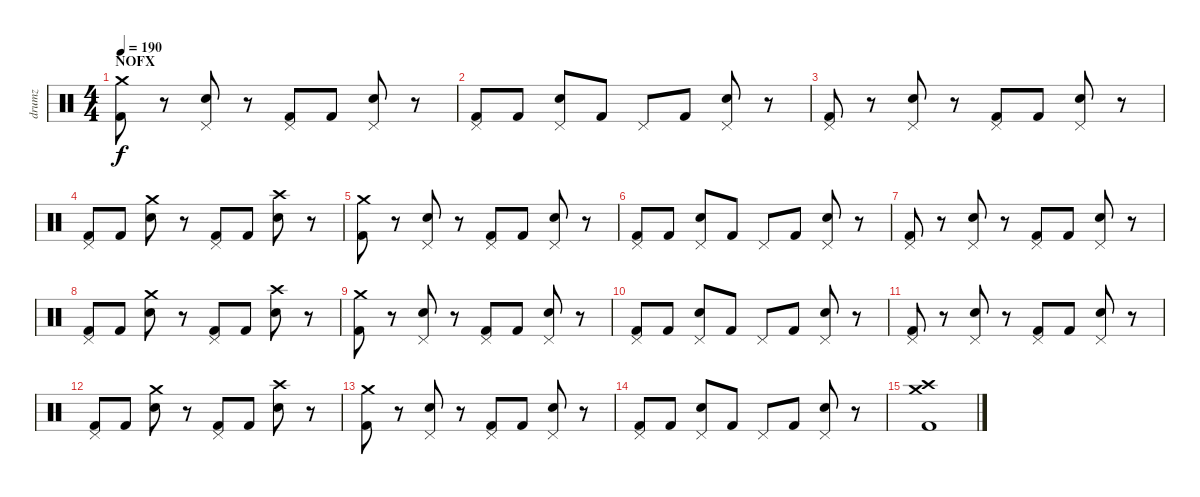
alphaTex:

\track ("drumz" "drumz") {instrument percussion}
\staff {score}
\articulation defaults
\ts (4 4)
\section ("" "NOFX")
\tempo 190
\clef neutral
\ks c
("Crash medium (hit)" "Kick (hit) 2").8{dy f} r.8 ("Pedal Hi-Hat (hit)" "Electric Snare (hit)").8 r.8 ("Pedal Hi-Hat (hit)" "Kick (hit) 2").8 "Kick (hit) 2".8 ("Pedal Hi-Hat (hit)" "Electric Snare (hit)").8 r.8 |
("Pedal Hi-Hat (hit)" "Kick (hit) 2").8 "Kick (hit) 2".8 ("Pedal Hi-Hat (hit)" "Electric Snare (hit)").8 "Kick (hit) 2".8 "Pedal Hi-Hat (hit)".8 "Kick (hit) 2".8 ("Pedal Hi-Hat (hit)" "Electric Snare (hit)").8 r.8 |
("Pedal Hi-Hat (hit)" "Kick (hit) 2").8 r.8 ("Pedal Hi-Hat (hit)" "Electric Snare (hit)").8 r.8 ("Pedal Hi-Hat (hit)" "Kick (hit) 2").8 "Kick (hit) 2".8 ("Pedal Hi-Hat (hit)" "Electric Snare (hit)").8 r.8 |
("Pedal Hi-Hat (hit)" "Kick (hit) 2").8 "Kick (hit) 2".8 ("Crash medium (hit)" "Electric Snare (hit)").8 r.8 ("Pedal Hi-Hat (hit)" "Kick (hit) 2").8 "Kick (hit) 2".8 ("Crash high (hit)" "Electric Snare (hit)").8 r.8 |
("Crash medium (hit)" "Kick (hit) 2").8 r.8 ("Pedal Hi-Hat (hit)" "Electric Snare (hit)").8 r.8 ("Pedal Hi-Hat (hit)" "Kick (hit) 2").8 "Kick (hit) 2".8 ("Pedal Hi-Hat (hit)" "Electric Snare (hit)").8 r.8 |
("Pedal Hi-Hat (hit)" "Kick (hit) 2").8 "Kick (hit) 2".8 ("Pedal Hi-Hat (hit)" "Electric Snare (hit)").8 "Kick (hit) 2".8 "Pedal Hi-Hat (hit)".8 "Kick (hit) 2".8 ("Pedal Hi-Hat (hit)" "Electric Snare (hit)").8 r.8 |
("Pedal Hi-Hat (hit)" "Kick (hit) 2").8 r.8 ("Pedal Hi-Hat (hit)" "Electric Snare (hit)").8 r.8 ("Pedal Hi-Hat (hit)" "Kick (hit) 2").8 "Kick (hit) 2".8 ("Pedal Hi-Hat (hit)" "Electric Snare (hit)").8 r.8 |
("Pedal Hi-Hat (hit)" "Kick (hit) 2").8 "Kick (hit) 2".8 ("Crash medium (hit)" "Electric Snare (hit)").8 r.8 ("Pedal Hi-Hat (hit)" "Kick (hit) 2").8 "Kick (hit) 2".8 ("Crash high (hit)" "Electric Snare (hit)").8 r.8 |
("Crash medium (hit)" "Kick (hit) 2").8 r.8 ("Pedal Hi-Hat (hit)" "Electric Snare (hit)").8 r.8 ("Pedal Hi-Hat (hit)" "Kick (hit) 2").8 "Kick (hit) 2".8 ("Pedal Hi-Hat (hit)" "Electric Snare (hit)").8 r.8 |
("Pedal Hi-Hat (hit)" "Kick (hit) 2").8 "Kick (hit) 2".8 ("Pedal Hi-Hat (hit)" "Electric Snare (hit)").8 "Kick (hit) 2".8 "Pedal Hi-Hat (hit)".8 "Kick (hit) 2".8 ("Pedal Hi-Hat (hit)" "Electric Snare (hit)").8 r.8 |
("Pedal Hi-Hat (hit)" "Kick (hit) 2").8 r.8 ("Pedal Hi-Hat (hit)" "Electric Snare (hit)").8 r.8 ("Pedal Hi-Hat (hit)" "Kick (hit) 2").8 "Kick (hit) 2".8 ("Pedal Hi-Hat (hit)" "Electric Snare (hit)").8 r.8 |
("Pedal Hi-Hat (hit)" "Kick (hit) 2").8 "Kick (hit) 2".8 ("Crash medium (hit)" "Electric Snare (hit)").8 r.8 ("Pedal Hi-Hat (hit)" "Kick (hit) 2").8 "Kick (hit) 2".8 ("Crash high (hit)" "Electric Snare (hit)").8 r.8 |
("Crash medium (hit)" "Kick (hit) 2").8 r.8 ("Pedal Hi-Hat (hit)" "Electric Snare (hit)").8 r.8 ("Pedal Hi-Hat (hit)" "Kick (hit) 2").8 "Kick (hit) 2".8 ("Pedal Hi-Hat (hit)" "Electric Snare (hit)").8 r.8 |
("Pedal Hi-Hat (hit)" "Kick (hit) 2").8 "Kick (hit) 2".8 ("Pedal Hi-Hat (hit)" "Electric Snare (hit)").8 "Kick (hit) 2".8 "Pedal Hi-Hat (hit)".8 "Kick (hit) 2".8 ("Pedal Hi-Hat (hit)" "Electric Snare (hit)").8 r.8 |
("Crash medium (hit)" "Crash high (hit)" "Kick (hit) 2").1
